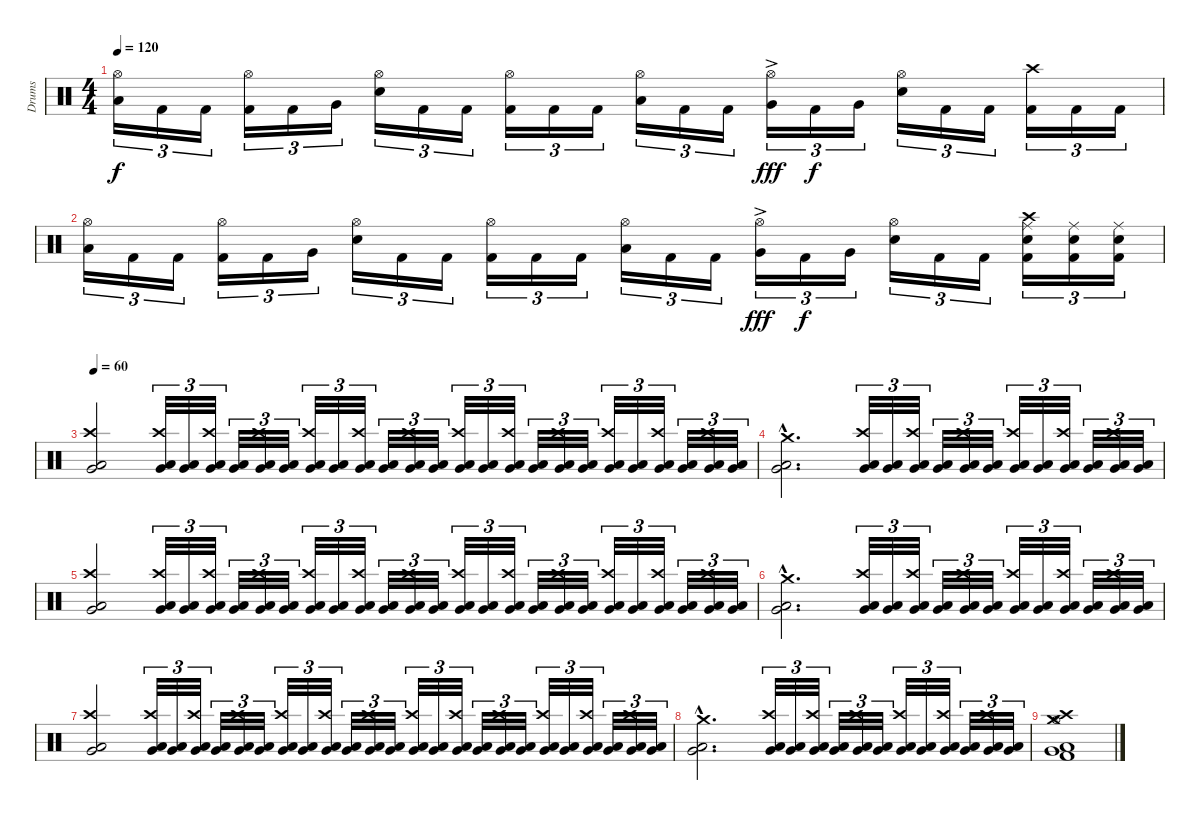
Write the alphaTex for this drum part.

\track ("Drums" "Drums") {instrument percussion}
\staff {score}
\articulation defaults
\ts (4 4)
\tempo 120
\clef neutral
\ks c
("Hi-Hat (open)" "Low Tom (hit)").16{tu (3 2) dy f} "Kick (hit) 2".16{tu (3 2)} "Kick (hit) 2".16{tu (3 2)} ("Hi-Hat (open)" "Kick (hit) 2").16{tu (3 2)} "Kick (hit) 2".16{tu (3 2)} "Very Low Tom (hit)".16{tu (3 2)} ("Hi-Hat (open)" "Electric Snare (hit)").16{tu (3 2)} "Kick (hit) 2".16{tu (3 2)} "Kick (hit) 2".16{tu (3 2)} ("Hi-Hat (open)" "Kick (hit) 2").16{tu (3 2)} "Kick (hit) 2".16{tu (3 2)} "Kick (hit) 2".16{tu (3 2)} ("Hi-Hat (open)" "Low Tom (hit)").16{tu (3 2)} "Kick (hit) 2".16{tu (3 2)} "Kick (hit) 2".16{tu (3 2)} ("Hi-Hat (open)" "Very Low Tom (hit)"{ac}).16{tu (3 2) dy fff} "Kick (hit) 2".16{tu (3 2) dy f} "Very Low Tom (hit)".16{tu (3 2)} ("Hi-Hat (open)" "Electric Snare (hit)").16{tu (3 2)} "Kick (hit) 2".16{tu (3 2)} "Kick (hit) 2".16{tu (3 2)} ("Crash high (hit)" "Kick (hit) 2").16{tu (3 2)} "Kick (hit) 2".16{tu (3 2)} "Kick (hit) 2".16{tu (3 2)} |
("Hi-Hat (open)" "Low Tom (hit)").16{tu (3 2)} "Kick (hit) 2".16{tu (3 2)} "Kick (hit) 2".16{tu (3 2)} ("Hi-Hat (open)" "Kick (hit) 2").16{tu (3 2)} "Kick (hit) 2".16{tu (3 2)} "Very Low Tom (hit)".16{tu (3 2)} ("Hi-Hat (open)" "Electric Snare (hit)").16{tu (3 2)} "Kick (hit) 2".16{tu (3 2)} "Kick (hit) 2".16{tu (3 2)} ("Hi-Hat (open)" "Kick (hit) 2").16{tu (3 2)} "Kick (hit) 2".16{tu (3 2)} "Kick (hit) 2".16{tu (3 2)} ("Hi-Hat (open)" "Low Tom (hit)").16{tu (3 2)} "Kick (hit) 2".16{tu (3 2)} "Kick (hit) 2".16{tu (3 2)} ("Hi-Hat (open)" "Very Low Tom (hit)"{ac}).16{tu (3 2) dy fff} "Kick (hit) 2".16{tu (3 2) dy f} "Very Low Tom (hit)".16{tu (3 2)} ("Hi-Hat (open)" "Electric Snare (hit)").16{tu (3 2)} "Kick (hit) 2".16{tu (3 2)} "Kick (hit) 2".16{tu (3 2)} ("Crash high (hit)" "Ride (middle)" "Kick (hit) 2" "Electric Snare (hit)").16{tu (3 2)} ("Ride (middle)" "Kick (hit) 2" "Electric Snare (hit)").16{tu (3 2)} ("Ride (middle)" "Kick (hit) 2" "Electric Snare (hit)").16{tu (3 2)} |
\tempo 60
("Crash high (hit)" "Low Floor Tom (hit)" "Very Low Tom (hit)").2 ("Crash high (hit)" "Low Floor Tom (hit)" "Very Low Tom (hit)").32{tu (3 2)} ("Low Floor Tom (hit)" "Very Low Tom (hit)").32{tu (3 2)} ("Crash high (hit)" "Low Floor Tom (hit)" "Very Low Tom (hit)").32{tu (3 2)} ("Low Floor Tom (hit)" "Very Low Tom (hit)").32{tu (3 2)} ("Crash high (hit)" "Low Floor Tom (hit)" "Very Low Tom (hit)").32{tu (3 2)} ("Low Floor Tom (hit)" "Very Low Tom (hit)").32{tu (3 2)} ("Crash high (hit)" "Low Floor Tom (hit)" "Very Low Tom (hit)").32{tu (3 2)} ("Low Floor Tom (hit)" "Very Low Tom (hit)").32{tu (3 2)} ("Crash high (hit)" "Low Floor Tom (hit)" "Very Low Tom (hit)").32{tu (3 2)} ("Low Floor Tom (hit)" "Very Low Tom (hit)").32{tu (3 2)} ("Crash high (hit)" "Low Floor Tom (hit)" "Very Low Tom (hit)").32{tu (3 2)} ("Low Floor Tom (hit)" "Very Low Tom (hit)").32{tu (3 2)} ("Crash high (hit)" "Low Floor Tom (hit)" "Very Low Tom (hit)").32{tu (3 2)} ("Low Floor Tom (hit)" "Very Low Tom (hit)").32{tu (3 2)} ("Crash high (hit)" "Low Floor Tom (hit)" "Very Low Tom (hit)").32{tu (3 2)} ("Low Floor Tom (hit)" "Very Low Tom (hit)").32{tu (3 2)} ("Crash high (hit)" "Low Floor Tom (hit)" "Very Low Tom (hit)").32{tu (3 2)} ("Low Floor Tom (hit)" "Very Low Tom (hit)").32{tu (3 2)} ("Crash high (hit)" "Low Floor Tom (hit)" "Very Low Tom (hit)").32{tu (3 2)} ("Low Floor Tom (hit)" "Very Low Tom (hit)").32{tu (3 2)} ("Crash high (hit)" "Low Floor Tom (hit)" "Very Low Tom (hit)").32{tu (3 2)} ("Low Floor Tom (hit)" "Very Low Tom (hit)").32{tu (3 2)} ("Crash high (hit)" "Low Floor Tom (hit)" "Very Low Tom (hit)").32{tu (3 2)} ("Low Floor Tom (hit)" "Very Low Tom (hit)").32{tu (3 2)} |
("Crash medium (hit)"{hac} "Low Floor Tom (hit)"{hac} "Very Low Tom (hit)"{hac}).2{d} ("Crash high (hit)" "Low Floor Tom (hit)" "Very Low Tom (hit)").32{tu (3 2)} ("Low Floor Tom (hit)" "Very Low Tom (hit)").32{tu (3 2)} ("Crash high (hit)" "Low Floor Tom (hit)" "Very Low Tom (hit)").32{tu (3 2)} ("Low Floor Tom (hit)" "Very Low Tom (hit)").32{tu (3 2)} ("Crash high (hit)" "Low Floor Tom (hit)" "Very Low Tom (hit)").32{tu (3 2)} ("Low Floor Tom (hit)" "Very Low Tom (hit)").32{tu (3 2)} ("Crash high (hit)" "Low Floor Tom (hit)" "Very Low Tom (hit)").32{tu (3 2)} ("Low Floor Tom (hit)" "Very Low Tom (hit)").32{tu (3 2)} ("Crash high (hit)" "Low Floor Tom (hit)" "Very Low Tom (hit)").32{tu (3 2)} ("Low Floor Tom (hit)" "Very Low Tom (hit)").32{tu (3 2)} ("Crash high (hit)" "Low Floor Tom (hit)" "Very Low Tom (hit)").32{tu (3 2)} ("Low Floor Tom (hit)" "Very Low Tom (hit)").32{tu (3 2)} |
("Crash high (hit)" "Low Floor Tom (hit)" "Very Low Tom (hit)").2 ("Crash high (hit)" "Low Floor Tom (hit)" "Very Low Tom (hit)").32{tu (3 2)} ("Low Floor Tom (hit)" "Very Low Tom (hit)").32{tu (3 2)} ("Crash high (hit)" "Low Floor Tom (hit)" "Very Low Tom (hit)").32{tu (3 2)} ("Low Floor Tom (hit)" "Very Low Tom (hit)").32{tu (3 2)} ("Crash high (hit)" "Low Floor Tom (hit)" "Very Low Tom (hit)").32{tu (3 2)} ("Low Floor Tom (hit)" "Very Low Tom (hit)").32{tu (3 2)} ("Crash high (hit)" "Low Floor Tom (hit)" "Very Low Tom (hit)").32{tu (3 2)} ("Low Floor Tom (hit)" "Very Low Tom (hit)").32{tu (3 2)} ("Crash high (hit)" "Low Floor Tom (hit)" "Very Low Tom (hit)").32{tu (3 2)} ("Low Floor Tom (hit)" "Very Low Tom (hit)").32{tu (3 2)} ("Crash high (hit)" "Low Floor Tom (hit)" "Very Low Tom (hit)").32{tu (3 2)} ("Low Floor Tom (hit)" "Very Low Tom (hit)").32{tu (3 2)} ("Crash high (hit)" "Low Floor Tom (hit)" "Very Low Tom (hit)").32{tu (3 2)} ("Low Floor Tom (hit)" "Very Low Tom (hit)").32{tu (3 2)} ("Crash high (hit)" "Low Floor Tom (hit)" "Very Low Tom (hit)").32{tu (3 2)} ("Low Floor Tom (hit)" "Very Low Tom (hit)").32{tu (3 2)} ("Crash high (hit)" "Low Floor Tom (hit)" "Very Low Tom (hit)").32{tu (3 2)} ("Low Floor Tom (hit)" "Very Low Tom (hit)").32{tu (3 2)} ("Crash high (hit)" "Low Floor Tom (hit)" "Very Low Tom (hit)").32{tu (3 2)} ("Low Floor Tom (hit)" "Very Low Tom (hit)").32{tu (3 2)} ("Crash high (hit)" "Low Floor Tom (hit)" "Very Low Tom (hit)").32{tu (3 2)} ("Low Floor Tom (hit)" "Very Low Tom (hit)").32{tu (3 2)} ("Crash high (hit)" "Low Floor Tom (hit)" "Very Low Tom (hit)").32{tu (3 2)} ("Low Floor Tom (hit)" "Very Low Tom (hit)").32{tu (3 2)} |
("Crash medium (hit)"{hac} "Low Floor Tom (hit)"{hac} "Very Low Tom (hit)"{hac}).2{d} ("Crash high (hit)" "Low Floor Tom (hit)" "Very Low Tom (hit)").32{tu (3 2)} ("Low Floor Tom (hit)" "Very Low Tom (hit)").32{tu (3 2)} ("Crash high (hit)" "Low Floor Tom (hit)" "Very Low Tom (hit)").32{tu (3 2)} ("Low Floor Tom (hit)" "Very Low Tom (hit)").32{tu (3 2)} ("Crash high (hit)" "Low Floor Tom (hit)" "Very Low Tom (hit)").32{tu (3 2)} ("Low Floor Tom (hit)" "Very Low Tom (hit)").32{tu (3 2)} ("Crash high (hit)" "Low Floor Tom (hit)" "Very Low Tom (hit)").32{tu (3 2)} ("Low Floor Tom (hit)" "Very Low Tom (hit)").32{tu (3 2)} ("Crash high (hit)" "Low Floor Tom (hit)" "Very Low Tom (hit)").32{tu (3 2)} ("Low Floor Tom (hit)" "Very Low Tom (hit)").32{tu (3 2)} ("Crash high (hit)" "Low Floor Tom (hit)" "Very Low Tom (hit)").32{tu (3 2)} ("Low Floor Tom (hit)" "Very Low Tom (hit)").32{tu (3 2)} |
("Crash high (hit)" "Low Floor Tom (hit)" "Very Low Tom (hit)").2 ("Crash high (hit)" "Low Floor Tom (hit)" "Very Low Tom (hit)").32{tu (3 2)} ("Low Floor Tom (hit)" "Very Low Tom (hit)").32{tu (3 2)} ("Crash high (hit)" "Low Floor Tom (hit)" "Very Low Tom (hit)").32{tu (3 2)} ("Low Floor Tom (hit)" "Very Low Tom (hit)").32{tu (3 2)} ("Crash high (hit)" "Low Floor Tom (hit)" "Very Low Tom (hit)").32{tu (3 2)} ("Low Floor Tom (hit)" "Very Low Tom (hit)").32{tu (3 2)} ("Crash high (hit)" "Low Floor Tom (hit)" "Very Low Tom (hit)").32{tu (3 2)} ("Low Floor Tom (hit)" "Very Low Tom (hit)").32{tu (3 2)} ("Crash high (hit)" "Low Floor Tom (hit)" "Very Low Tom (hit)").32{tu (3 2)} ("Low Floor Tom (hit)" "Very Low Tom (hit)").32{tu (3 2)} ("Crash high (hit)" "Low Floor Tom (hit)" "Very Low Tom (hit)").32{tu (3 2)} ("Low Floor Tom (hit)" "Very Low Tom (hit)").32{tu (3 2)} ("Crash high (hit)" "Low Floor Tom (hit)" "Very Low Tom (hit)").32{tu (3 2)} ("Low Floor Tom (hit)" "Very Low Tom (hit)").32{tu (3 2)} ("Crash high (hit)" "Low Floor Tom (hit)" "Very Low Tom (hit)").32{tu (3 2)} ("Low Floor Tom (hit)" "Very Low Tom (hit)").32{tu (3 2)} ("Crash high (hit)" "Low Floor Tom (hit)" "Very Low Tom (hit)").32{tu (3 2)} ("Low Floor Tom (hit)" "Very Low Tom (hit)").32{tu (3 2)} ("Crash high (hit)" "Low Floor Tom (hit)" "Very Low Tom (hit)").32{tu (3 2)} ("Low Floor Tom (hit)" "Very Low Tom (hit)").32{tu (3 2)} ("Crash high (hit)" "Low Floor Tom (hit)" "Very Low Tom (hit)").32{tu (3 2)} ("Low Floor Tom (hit)" "Very Low Tom (hit)").32{tu (3 2)} ("Crash high (hit)" "Low Floor Tom (hit)" "Very Low Tom (hit)").32{tu (3 2)} ("Low Floor Tom (hit)" "Very Low Tom (hit)").32{tu (3 2)} |
("Crash medium (hit)"{hac} "Low Floor Tom (hit)"{hac} "Very Low Tom (hit)"{hac}).2{d} ("Crash high (hit)" "Low Floor Tom (hit)" "Very Low Tom (hit)").32{tu (3 2)} ("Low Floor Tom (hit)" "Very Low Tom (hit)").32{tu (3 2)} ("Crash high (hit)" "Low Floor Tom (hit)" "Very Low Tom (hit)").32{tu (3 2)} ("Low Floor Tom (hit)" "Very Low Tom (hit)").32{tu (3 2)} ("Crash high (hit)" "Low Floor Tom (hit)" "Very Low Tom (hit)").32{tu (3 2)} ("Low Floor Tom (hit)" "Very Low Tom (hit)").32{tu (3 2)} ("Crash high (hit)" "Low Floor Tom (hit)" "Very Low Tom (hit)").32{tu (3 2)} ("Low Floor Tom (hit)" "Very Low Tom (hit)").32{tu (3 2)} ("Crash high (hit)" "Low Floor Tom (hit)" "Very Low Tom (hit)").32{tu (3 2)} ("Low Floor Tom (hit)" "Very Low Tom (hit)").32{tu (3 2)} ("Crash high (hit)" "Low Floor Tom (hit)" "Very Low Tom (hit)").32{tu (3 2)} ("Low Floor Tom (hit)" "Very Low Tom (hit)").32{tu (3 2)} |
("Crash medium (hit)" "Crash high (hit)" "Low Floor Tom (hit)" "Very Low Tom (hit)" "Hi-Hat (open)" "Kick (hit) 2").1
